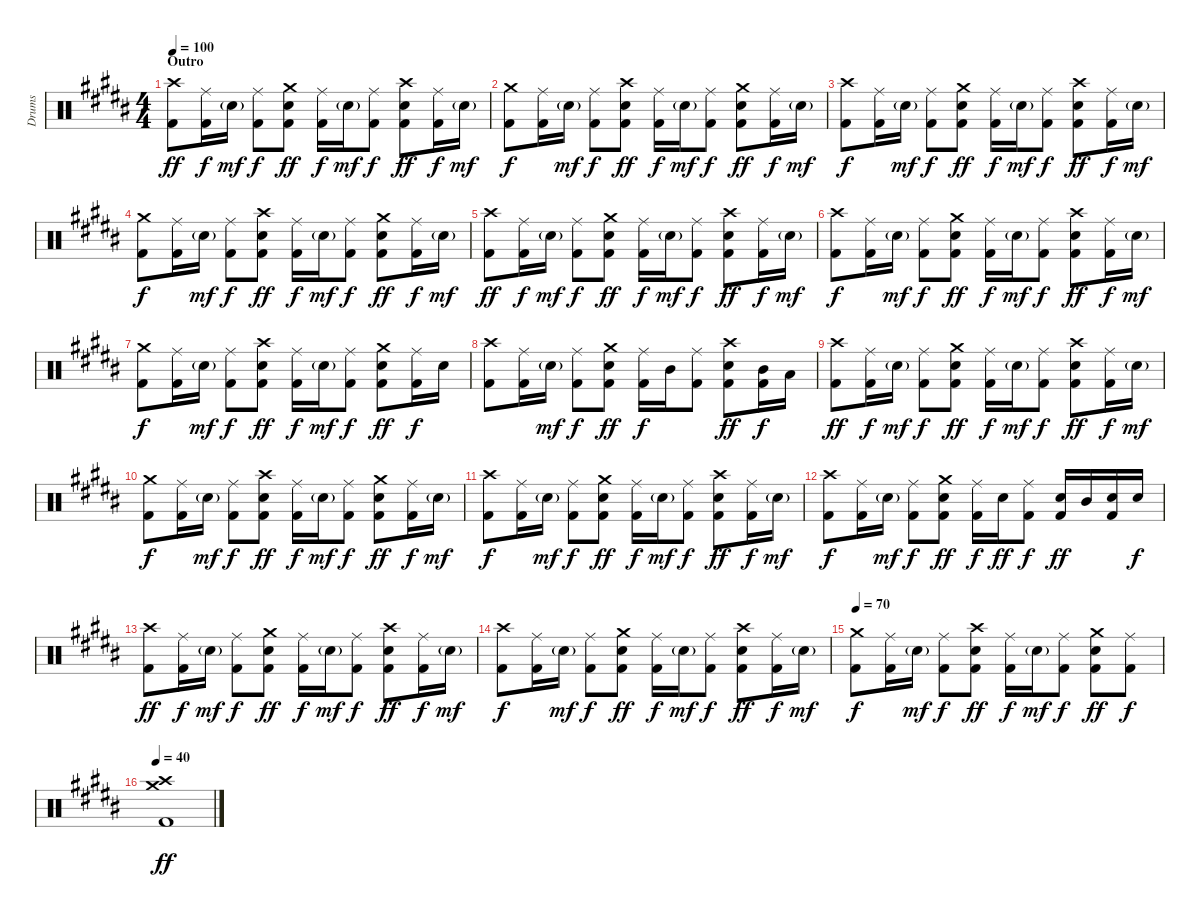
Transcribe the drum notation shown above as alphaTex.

\track ("Drums" "Drums") {instrument percussion}
\staff {score}
\articulation defaults
\ts (4 4)
\section ("" "Outro")
\tempo 100
\clef neutral
\ks b
("Crash high (hit)" "Kick (hit) 2").8{dy ff} ("Ride (middle)" "Kick (hit) 2").16{dy f} "Snare (hit) 2"{g}.16{dy mf} ("Ride (middle)" "Kick (hit) 2").8{dy f} ("Crash medium (hit)" "Snare (hit) 2" "Kick (hit) 2").8{dy ff} ("Ride (middle)" "Kick (hit) 2").16{dy f} "Snare (hit) 2"{g}.16{dy mf} ("Ride (middle)" "Kick (hit) 2").8{dy f} ("Crash high (hit)" "Snare (hit) 2" "Kick (hit) 2").8{dy ff} ("Ride (middle)" "Kick (hit) 2").16{dy f} "Snare (hit) 2"{g}.16{dy mf} |
("Crash medium (hit)" "Kick (hit) 2").8{dy f} ("Ride (middle)" "Kick (hit) 2").16 "Snare (hit) 2"{g}.16{dy mf} ("Ride (middle)" "Kick (hit) 2").8{dy f} ("Crash high (hit)" "Snare (hit) 2" "Kick (hit) 2").8{dy ff} ("Ride (middle)" "Kick (hit) 2").16{dy f} "Snare (hit) 2"{g}.16{dy mf} ("Ride (middle)" "Kick (hit) 2").8{dy f} ("Crash medium (hit)" "Snare (hit) 2" "Kick (hit) 2").8{dy ff} ("Ride (middle)" "Kick (hit) 2").16{dy f} "Snare (hit) 2"{g}.16{dy mf} |
("Crash high (hit)" "Kick (hit) 2").8{dy f} ("Ride (middle)" "Kick (hit) 2").16 "Snare (hit) 2"{g}.16{dy mf} ("Ride (middle)" "Kick (hit) 2").8{dy f} ("Crash medium (hit)" "Snare (hit) 2" "Kick (hit) 2").8{dy ff} ("Ride (middle)" "Kick (hit) 2").16{dy f} "Snare (hit) 2"{g}.16{dy mf} ("Ride (middle)" "Kick (hit) 2").8{dy f} ("Crash high (hit)" "Snare (hit) 2" "Kick (hit) 2").8{dy ff} ("Ride (middle)" "Kick (hit) 2").16{dy f} "Snare (hit) 2"{g}.16{dy mf} |
("Crash medium (hit)" "Kick (hit) 2").8{dy f} ("Ride (middle)" "Kick (hit) 2").16 "Snare (hit) 2"{g}.16{dy mf} ("Ride (middle)" "Kick (hit) 2").8{dy f} ("Crash high (hit)" "Snare (hit) 2" "Kick (hit) 2").8{dy ff} ("Ride (middle)" "Kick (hit) 2").16{dy f} "Snare (hit) 2"{g}.16{dy mf} ("Ride (middle)" "Kick (hit) 2").8{dy f} ("Crash medium (hit)" "Snare (hit) 2" "Kick (hit) 2").8{dy ff} ("Ride (middle)" "Kick (hit) 2").16{dy f} "Snare (hit) 2"{g}.16{dy mf} |
("Crash high (hit)" "Kick (hit) 2").8{dy ff} ("Ride (middle)" "Kick (hit) 2").16{dy f} "Snare (hit) 2"{g}.16{dy mf} ("Ride (middle)" "Kick (hit) 2").8{dy f} ("Crash medium (hit)" "Snare (hit) 2" "Kick (hit) 2").8{dy ff} ("Ride (middle)" "Kick (hit) 2").16{dy f} "Snare (hit) 2"{g}.16{dy mf} ("Ride (middle)" "Kick (hit) 2").8{dy f} ("Crash high (hit)" "Snare (hit) 2" "Kick (hit) 2").8{dy ff} ("Ride (middle)" "Kick (hit) 2").16{dy f} "Snare (hit) 2"{g}.16{dy mf} |
("Crash high (hit)" "Kick (hit) 2").8{dy f} ("Ride (middle)" "Kick (hit) 2").16 "Snare (hit) 2"{g}.16{dy mf} ("Ride (middle)" "Kick (hit) 2").8{dy f} ("Crash medium (hit)" "Snare (hit) 2" "Kick (hit) 2").8{dy ff} ("Ride (middle)" "Kick (hit) 2").16{dy f} "Snare (hit) 2"{g}.16{dy mf} ("Ride (middle)" "Kick (hit) 2").8{dy f} ("Crash high (hit)" "Snare (hit) 2" "Kick (hit) 2").8{dy ff} ("Ride (middle)" "Kick (hit) 2").16{dy f} "Snare (hit) 2"{g}.16{dy mf} |
("Crash medium (hit)" "Kick (hit) 2").8{dy f} ("Ride (middle)" "Kick (hit) 2").16 "Snare (hit) 2"{g}.16{dy mf} ("Ride (middle)" "Kick (hit) 2").8{dy f} ("Crash high (hit)" "Snare (hit) 2" "Kick (hit) 2").8{dy ff} ("Ride (middle)" "Kick (hit) 2").16{dy f} "Snare (hit) 2"{g}.16{dy mf} ("Ride (middle)" "Kick (hit) 2").8{dy f} ("Crash medium (hit)" "Snare (hit) 2" "Kick (hit) 2").8{dy ff} ("Ride (middle)" "Kick (hit) 2").16{dy f} "Snare (hit) 2".16 |
("Crash high (hit)" "Kick (hit) 2").8 ("Ride (middle)" "Kick (hit) 2").16 "Snare (hit) 2"{g}.16{dy mf} ("Ride (middle)" "Kick (hit) 2").8{dy f} ("Crash medium (hit)" "Snare (hit) 2" "Kick (hit) 2").8{dy ff} ("Ride (middle)" "Kick (hit) 2").16{dy f} "Mid Tom (hit)".16 ("Ride (middle)" "Kick (hit) 2").8 ("Crash high (hit)" "Snare (hit) 2" "Kick (hit) 2").8{dy ff} ("Mid Tom (hit)" "Kick (hit) 2").16{dy f} "Low Tom (hit)".16 |
("Crash high (hit)" "Kick (hit) 2").8{dy ff} ("Ride (middle)" "Kick (hit) 2").16{dy f} "Snare (hit) 2"{g}.16{dy mf} ("Ride (middle)" "Kick (hit) 2").8{dy f} ("Crash medium (hit)" "Snare (hit) 2" "Kick (hit) 2").8{dy ff} ("Ride (middle)" "Kick (hit) 2").16{dy f} "Snare (hit) 2"{g}.16{dy mf} ("Ride (middle)" "Kick (hit) 2").8{dy f} ("Crash high (hit)" "Snare (hit) 2" "Kick (hit) 2").8{dy ff} ("Ride (middle)" "Kick (hit) 2").16{dy f} "Snare (hit) 2"{g}.16{dy mf} |
("Crash medium (hit)" "Kick (hit) 2").8{dy f} ("Ride (middle)" "Kick (hit) 2").16 "Snare (hit) 2"{g}.16{dy mf} ("Ride (middle)" "Kick (hit) 2").8{dy f} ("Crash high (hit)" "Snare (hit) 2" "Kick (hit) 2").8{dy ff} ("Ride (middle)" "Kick (hit) 2").16{dy f} "Snare (hit) 2"{g}.16{dy mf} ("Ride (middle)" "Kick (hit) 2").8{dy f} ("Crash medium (hit)" "Snare (hit) 2" "Kick (hit) 2").8{dy ff} ("Ride (middle)" "Kick (hit) 2").16{dy f} "Snare (hit) 2"{g}.16{dy mf} |
("Crash high (hit)" "Kick (hit) 2").8{dy f} ("Ride (middle)" "Kick (hit) 2").16 "Snare (hit) 2"{g}.16{dy mf} ("Ride (middle)" "Kick (hit) 2").8{dy f} ("Crash medium (hit)" "Snare (hit) 2" "Kick (hit) 2").8{dy ff} ("Ride (middle)" "Kick (hit) 2").16{dy f} "Snare (hit) 2"{g}.16{dy mf} ("Ride (middle)" "Kick (hit) 2").8{dy f} ("Crash high (hit)" "Snare (hit) 2" "Kick (hit) 2").8{dy ff} ("Ride (middle)" "Kick (hit) 2").16{dy f} "Snare (hit) 2"{g}.16{dy mf} |
("Crash high (hit)" "Kick (hit) 2").8{dy f} ("Ride (middle)" "Kick (hit) 2").16 "Snare (hit) 2"{g}.16{dy mf} ("Ride (middle)" "Kick (hit) 2").8{dy f} ("Crash medium (hit)" "Snare (hit) 2" "Kick (hit) 2").8{dy ff} ("Ride (middle)" "Kick (hit) 2").16{dy f} "Snare (hit) 2".16{dy ff} ("Ride (middle)" "Kick (hit) 2").8{dy f} ("Snare (hit) 2" "Kick (hit) 2").16{dy ff} "Mid Tom (hit)".16 ("Snare (hit) 2" "Kick (hit) 2").16 "Snare (hit) 2".16{dy f} |
("Crash high (hit)" "Kick (hit) 2").8{dy ff} ("Ride (middle)" "Kick (hit) 2").16{dy f} "Snare (hit) 2"{g}.16{dy mf} ("Ride (middle)" "Kick (hit) 2").8{dy f} ("Crash medium (hit)" "Snare (hit) 2" "Kick (hit) 2").8{dy ff} ("Ride (middle)" "Kick (hit) 2").16{dy f} "Snare (hit) 2"{g}.16{dy mf} ("Ride (middle)" "Kick (hit) 2").8{dy f} ("Crash high (hit)" "Snare (hit) 2" "Kick (hit) 2").8{dy ff} ("Ride (middle)" "Kick (hit) 2").16{dy f} "Snare (hit) 2"{g}.16{dy mf} |
("Crash high (hit)" "Kick (hit) 2").8{dy f} ("Ride (middle)" "Kick (hit) 2").16 "Snare (hit) 2"{g}.16{dy mf} ("Ride (middle)" "Kick (hit) 2").8{dy f} ("Crash medium (hit)" "Snare (hit) 2" "Kick (hit) 2").8{dy ff} ("Ride (middle)" "Kick (hit) 2").16{dy f} "Snare (hit) 2"{g}.16{dy mf} ("Ride (middle)" "Kick (hit) 2").8{dy f} ("Crash high (hit)" "Snare (hit) 2" "Kick (hit) 2").8{dy ff} ("Ride (middle)" "Kick (hit) 2").16{dy f} "Snare (hit) 2"{g}.16{dy mf} |
\tempo 70
("Crash medium (hit)" "Kick (hit) 2").8{dy f} ("Ride (middle)" "Kick (hit) 2").16 "Snare (hit) 2"{g}.16{dy mf} ("Ride (middle)" "Kick (hit) 2").8{dy f} ("Crash high (hit)" "Snare (hit) 2" "Kick (hit) 2").8{dy ff} ("Ride (middle)" "Kick (hit) 2").16{dy f} "Snare (hit) 2"{g}.16{dy mf} ("Ride (middle)" "Kick (hit) 2").8{dy f} ("Crash medium (hit)" "Snare (hit) 2" "Kick (hit) 2").8{dy ff} ("Ride (middle)" "Kick (hit) 2").8{dy f} |
\tempo 40
("Crash high (hit)" "Crash medium (hit)" "Kick (hit) 2").1{dy ff}
